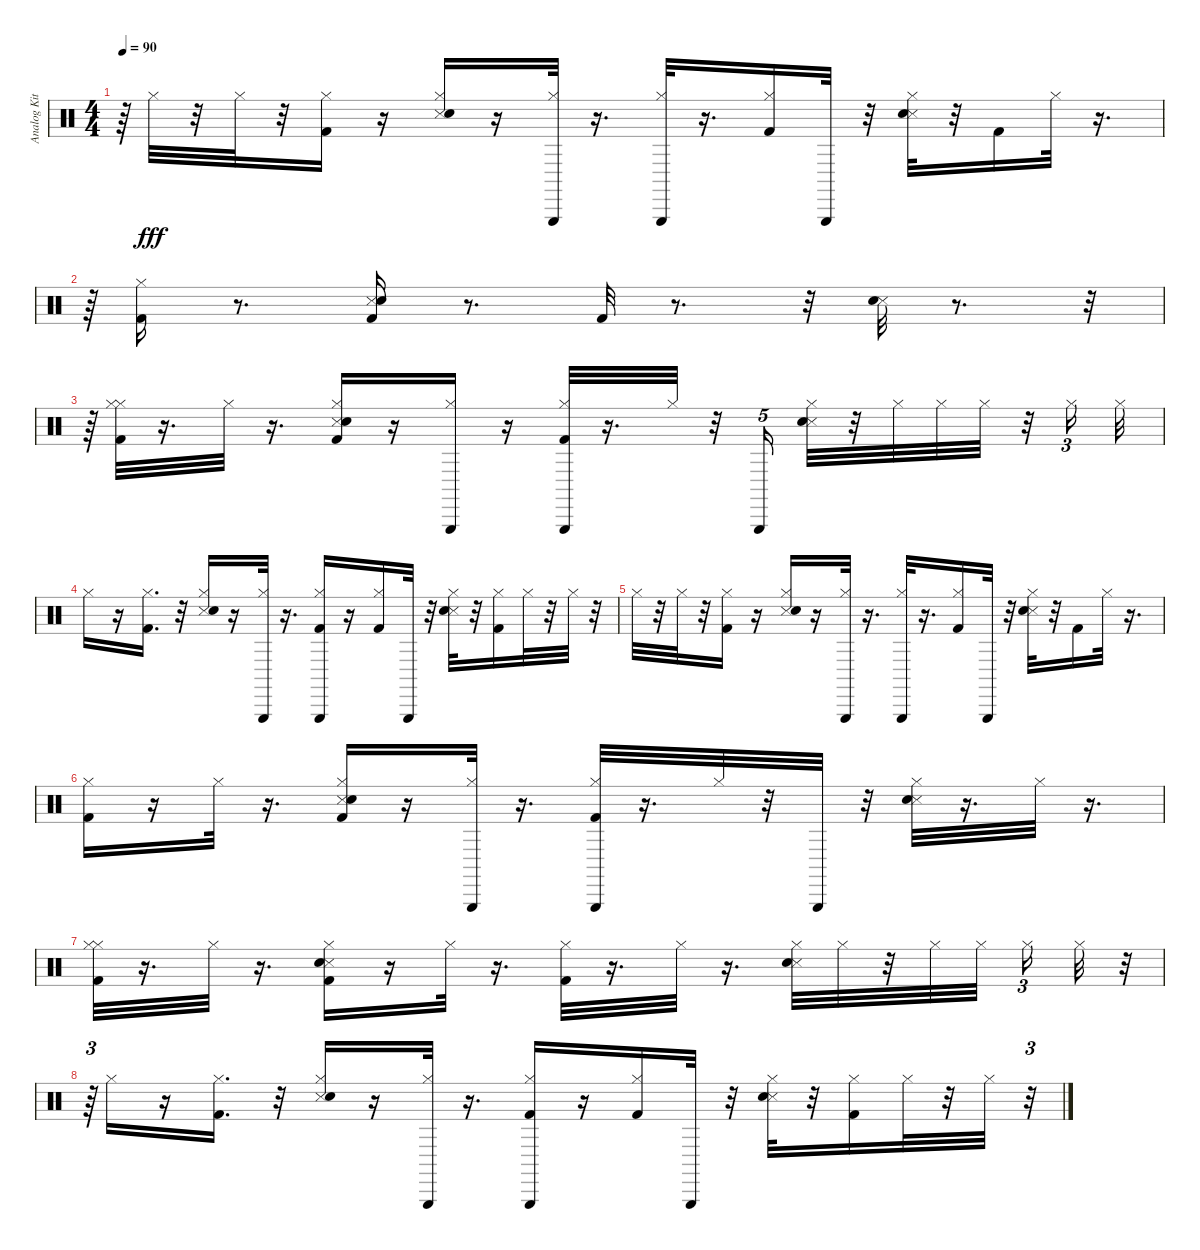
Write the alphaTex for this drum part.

\track ("Analog Kit" "Analog Kit") {instrument percussion}
\staff {score}
\articulation defaults
\ts (4 4)
\tempo 90
\clef neutral
\ks c
r.64{dy fff} "Hi-Hat (closed)".32 r.32 "Hi-Hat (closed)".32 r.32 ("Hi-Hat (closed)" "Kick (hit) 2").16 r.16 ("Snare (side stick) 3" "Electric Snare (hit)" "Hi-Hat (closed)").16 r.16 ("Hi-Hat (closed)" "Triangle (hit)").32 r.16{d} ("Hi-Hat (closed)" "Triangle (hit)").32 r.16{d} ("Kick (hit) 2" "Hi-Hat (closed)").16 "Triangle (hit)".32 r.32 ("Snare (side stick) 3" "Electric Snare (hit)" "Hi-Hat (closed)").32 r.32 "Kick (hit) 2".16 "Hi-Hat (closed)".32 r.16{d} |
r.64 ("Hi-Hat (closed)" "Kick (hit) 2").16 r.8{d} ("Snare (side stick) 3" "Kick (hit) 2" "Electric Snare (hit)").16 r.8{d} "Kick (hit) 2".32 r.8{d} r.32 ("Snare (side stick) 3" "Electric Snare (hit)").32 r.8{d} r.32 |
r.64 ("Hi-Hat (closed)" "Hi-Hat (closed)" "Kick (hit) 2").32 r.16{d} "Hi-Hat (closed)".32 r.16{d} ("Hi-Hat (closed)" "Snare (side stick) 3" "Kick (hit) 2" "Electric Snare (hit)").16 r.16 ("Hi-Hat (closed)" "Triangle (hit)").16 r.16 ("Kick (hit) 2" "Hi-Hat (closed)" "Triangle (hit)").32 r.16{d} "Hi-Hat (closed)".32 r.32 "Triangle (hit)".16{tu (5 4)} ("Hi-Hat (closed)" "Snare (side stick) 3" "Electric Snare (hit)").32 r.32 "Hi-Hat (closed)".32 "Hi-Hat (closed)".32 "Hi-Hat (closed)".32 r.32 "Hi-Hat (closed)".16{tu (3 2)} "Hi-Hat (closed)".32 |
"Hi-Hat (closed)".16 r.16 ("Kick (hit) 2" "Hi-Hat (closed)").16{d} r.32 ("Snare (side stick) 3" "Electric Snare (hit)" "Hi-Hat (closed)").16 r.16 ("Hi-Hat (closed)" "Triangle (hit)").32 r.16{d} ("Hi-Hat (closed)" "Kick (hit) 2" "Triangle (hit)").16 r.16 ("Kick (hit) 2" "Hi-Hat (closed)").16 "Triangle (hit)".32 r.32 ("Snare (side stick) 3" "Electric Snare (hit)" "Hi-Hat (closed)").32 r.32 ("Kick (hit) 2" "Hi-Hat (closed)").16 "Hi-Hat (closed)".32 r.32 "Hi-Hat (closed)".32 r.32 |
"Hi-Hat (closed)".32 r.32 "Hi-Hat (closed)".32 r.32 ("Hi-Hat (closed)" "Kick (hit) 2").16 r.16 ("Snare (side stick) 3" "Electric Snare (hit)" "Hi-Hat (closed)").16 r.16 ("Hi-Hat (closed)" "Triangle (hit)").32 r.16{d} ("Hi-Hat (closed)" "Triangle (hit)").32 r.16{d} ("Kick (hit) 2" "Hi-Hat (closed)").16 "Triangle (hit)".32 r.32 ("Snare (side stick) 3" "Electric Snare (hit)" "Hi-Hat (closed)").32 r.32 "Kick (hit) 2".16 "Hi-Hat (closed)".32 r.16{d} |
("Hi-Hat (closed)" "Kick (hit) 2").16 r.16 "Hi-Hat (closed)".32 r.16{d} ("Snare (side stick) 3" "Kick (hit) 2" "Electric Snare (hit)" "Hi-Hat (closed)").16 r.16 ("Triangle (hit)" "Hi-Hat (closed)").32 r.16{d} ("Kick (hit) 2" "Hi-Hat (closed)" "Triangle (hit)").32 r.16{d} "Hi-Hat (closed)".32 r.32 "Triangle (hit)".32 r.32 ("Snare (side stick) 3" "Electric Snare (hit)" "Hi-Hat (closed)").32 r.16{d} "Hi-Hat (closed)".32 r.16{d} |
("Hi-Hat (closed)" "Hi-Hat (closed)" "Kick (hit) 2").32 r.16{d} "Hi-Hat (closed)".32 r.16{d} ("Hi-Hat (closed)" "Snare (side stick) 3" "Kick (hit) 2" "Electric Snare (hit)").16 r.16 "Hi-Hat (closed)".32 r.16{d} ("Kick (hit) 2" "Hi-Hat (closed)").32 r.16{d} "Hi-Hat (closed)".32 r.16{d} ("Hi-Hat (closed)" "Snare (side stick) 3" "Electric Snare (hit)").32 "Hi-Hat (closed)".32 r.32 "Hi-Hat (closed)".32 "Hi-Hat (closed)".32{beam splitsecondary} "Hi-Hat (closed)".16{tu (3 2)} "Hi-Hat (closed)".32 r.32{tu (3 2)} |
r.64{tu (3 2)} "Hi-Hat (closed)".16 r.16 ("Kick (hit) 2" "Hi-Hat (closed)").16{d} r.32 ("Snare (side stick) 3" "Electric Snare (hit)" "Hi-Hat (closed)").16 r.16 ("Hi-Hat (closed)" "Triangle (hit)").32 r.16{d} ("Hi-Hat (closed)" "Kick (hit) 2" "Triangle (hit)").16 r.16 ("Kick (hit) 2" "Hi-Hat (closed)").16 "Triangle (hit)".32 r.32 ("Snare (side stick) 3" "Electric Snare (hit)" "Hi-Hat (closed)").32 r.32 ("Kick (hit) 2" "Hi-Hat (closed)").16 "Hi-Hat (closed)".32 r.32 "Hi-Hat (closed)".32 r.32{tu (3 2)}
